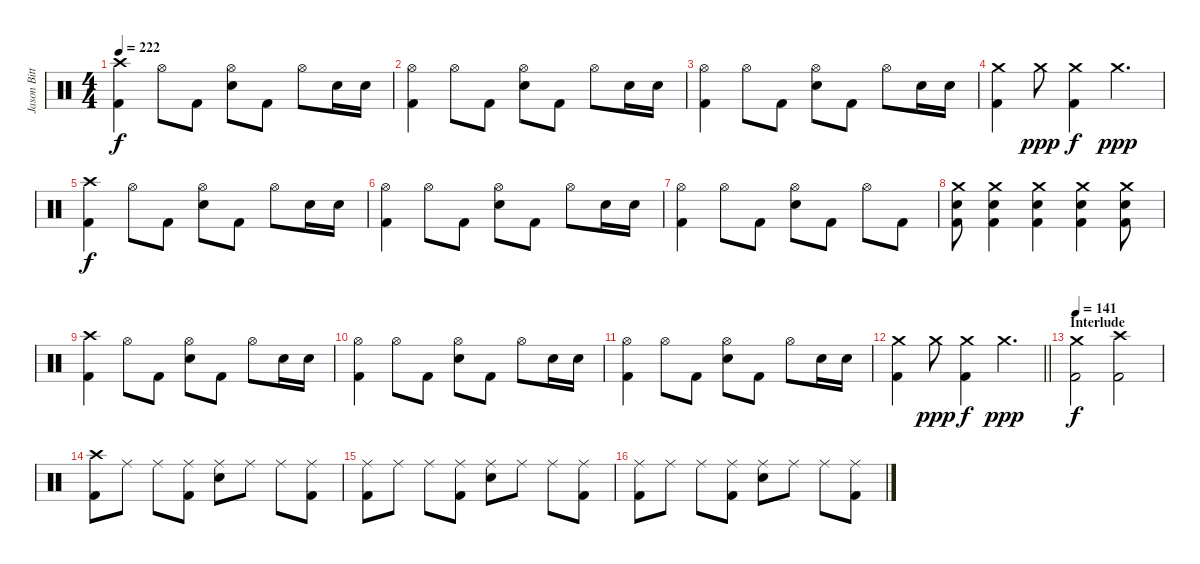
\track ("Jason Bittner" "Jason Bitt") {instrument percussion}
\staff {score}
\articulation defaults
\ts (4 4)
\tempo 222
\clef neutral
\ks c
("Crash high (hit)" "Kick (hit) 2").4{dy f} "Hi-Hat (open)".8 "Kick (hit) 2".8 ("Hi-Hat (open)" "Electric Snare (hit)").8 "Kick (hit) 2".8 "Hi-Hat (open)".8 "Electric Snare (hit)".16 "Electric Snare (hit)".16 |
("Hi-Hat (open)" "Kick (hit) 2").4 "Hi-Hat (open)".8 "Kick (hit) 2".8 ("Hi-Hat (open)" "Electric Snare (hit)").8 "Kick (hit) 2".8 "Hi-Hat (open)".8 "Electric Snare (hit)".16 "Electric Snare (hit)".16 |
("Hi-Hat (open)" "Kick (hit) 2").4 "Hi-Hat (open)".8 "Kick (hit) 2".8 ("Hi-Hat (open)" "Electric Snare (hit)").8 "Kick (hit) 2".8 "Hi-Hat (open)".8 "Electric Snare (hit)".16 "Electric Snare (hit)".16 |
("Crash medium (hit)" "Kick (hit) 2").4 "Crash medium (hit)".8{dy ppp} ("Crash medium (hit)" "Kick (hit) 2").4{dy f} "Crash medium (hit)".4{d dy ppp} |
("Crash high (hit)" "Kick (hit) 2").4{dy f} "Hi-Hat (open)".8 "Kick (hit) 2".8 ("Hi-Hat (open)" "Electric Snare (hit)").8 "Kick (hit) 2".8 "Hi-Hat (open)".8 "Electric Snare (hit)".16 "Electric Snare (hit)".16 |
("Hi-Hat (open)" "Kick (hit) 2").4 "Hi-Hat (open)".8 "Kick (hit) 2".8 ("Hi-Hat (open)" "Electric Snare (hit)").8 "Kick (hit) 2".8 "Hi-Hat (open)".8 "Electric Snare (hit)".16 "Electric Snare (hit)".16 |
("Hi-Hat (open)" "Kick (hit) 2").4 "Hi-Hat (open)".8 "Kick (hit) 2".8 ("Hi-Hat (open)" "Electric Snare (hit)").8 "Kick (hit) 2".8 "Hi-Hat (open)".8 "Kick (hit) 2".8 |
("Crash medium (hit)" "Electric Snare (hit)" "Kick (hit) 2").8 ("Crash medium (hit)" "Electric Snare (hit)" "Kick (hit) 2").4 ("Crash medium (hit)" "Electric Snare (hit)" "Kick (hit) 2").4 ("Crash medium (hit)" "Electric Snare (hit)" "Kick (hit) 2").4 ("Crash medium (hit)" "Electric Snare (hit)" "Kick (hit) 2").8 |
("Crash high (hit)" "Kick (hit) 2").4 "Hi-Hat (open)".8 "Kick (hit) 2".8 ("Hi-Hat (open)" "Electric Snare (hit)").8 "Kick (hit) 2".8 "Hi-Hat (open)".8 "Electric Snare (hit)".16 "Electric Snare (hit)".16 |
("Hi-Hat (open)" "Kick (hit) 2").4 "Hi-Hat (open)".8 "Kick (hit) 2".8 ("Hi-Hat (open)" "Electric Snare (hit)").8 "Kick (hit) 2".8 "Hi-Hat (open)".8 "Electric Snare (hit)".16 "Electric Snare (hit)".16 |
("Hi-Hat (open)" "Kick (hit) 2").4 "Hi-Hat (open)".8 "Kick (hit) 2".8 ("Hi-Hat (open)" "Electric Snare (hit)").8 "Kick (hit) 2".8 "Hi-Hat (open)".8 "Electric Snare (hit)".16 "Electric Snare (hit)".16 |
\barLineRight lightlight
("Crash medium (hit)" "Kick (hit) 2").4 "Crash medium (hit)".8{dy ppp} ("Crash medium (hit)" "Kick (hit) 2").4{dy f} "Crash medium (hit)".4{d dy ppp} |
\section ("" "Interlude")
\tempo 141
("Crash medium (hit)" "Kick (hit) 2").2{dy f} ("Crash high (hit)" "Kick (hit) 2").2 |
("Crash high (hit)" "Kick (hit) 2").8 "Ride (middle)".8 "Ride (middle)".8 ("Ride (middle)" "Kick (hit) 2").8 ("Ride (middle)" "Electric Snare (hit)").8 "Ride (middle)".8 "Ride (middle)".8 ("Ride (middle)" "Kick (hit) 2").8 |
("Ride (middle)" "Kick (hit) 2").8 "Ride (middle)".8 "Ride (middle)".8 ("Ride (middle)" "Kick (hit) 2").8 ("Ride (middle)" "Electric Snare (hit)").8 "Ride (middle)".8 "Ride (middle)".8 ("Ride (middle)" "Kick (hit) 2").8 |
("Ride (middle)" "Kick (hit) 2").8 "Ride (middle)".8 "Ride (middle)".8 ("Ride (middle)" "Kick (hit) 2").8 ("Ride (middle)" "Electric Snare (hit)").8 "Ride (middle)".8 "Ride (middle)".8 ("Ride (middle)" "Kick (hit) 2").8
